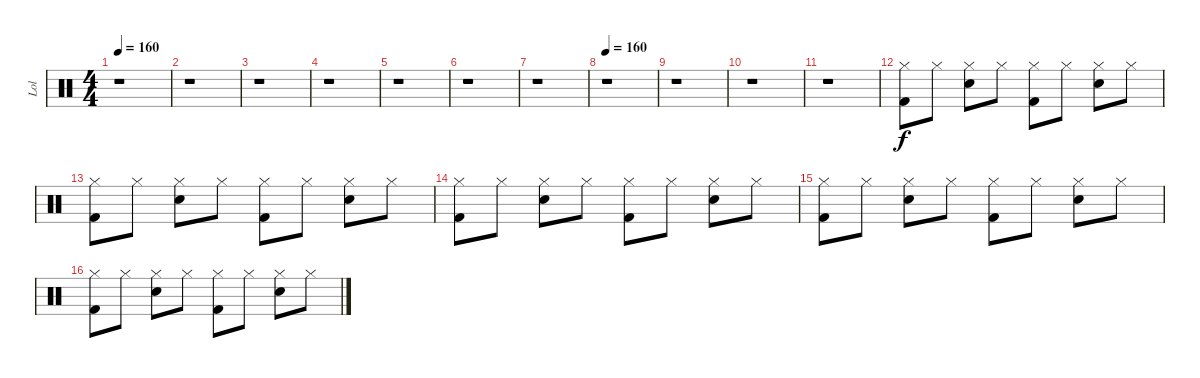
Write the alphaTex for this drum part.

\track ("Lol" "Lol") {instrument percussion}
\staff {score}
\articulation defaults
\ts (4 4)
\tempo 160
\clef neutral
\ks c
r.1{dy f} |
r.1 |
r.1 |
r.1 |
r.1 |
r.1 |
r.1 |
\tempo 160
r.1 |
r.1 |
r.1 |
r.1 |
("Kick (hit) 2" "Hi-Hat (closed)").8 "Hi-Hat (closed)".8 ("Snare (hit) 2" "Hi-Hat (closed)").8 "Hi-Hat (closed)".8 ("Kick (hit) 2" "Hi-Hat (closed)").8 "Hi-Hat (closed)".8 ("Snare (hit) 2" "Hi-Hat (closed)").8 "Hi-Hat (closed)".8 |
("Kick (hit) 2" "Hi-Hat (closed)").8 "Hi-Hat (closed)".8 ("Snare (hit) 2" "Hi-Hat (closed)").8 "Hi-Hat (closed)".8 ("Kick (hit) 2" "Hi-Hat (closed)").8 "Hi-Hat (closed)".8 ("Snare (hit) 2" "Hi-Hat (closed)").8 "Hi-Hat (closed)".8 |
("Kick (hit) 2" "Hi-Hat (closed)").8 "Hi-Hat (closed)".8 ("Snare (hit) 2" "Hi-Hat (closed)").8 "Hi-Hat (closed)".8 ("Kick (hit) 2" "Hi-Hat (closed)").8 "Hi-Hat (closed)".8 ("Snare (hit) 2" "Hi-Hat (closed)").8 "Hi-Hat (closed)".8 |
("Kick (hit) 2" "Hi-Hat (closed)").8 "Hi-Hat (closed)".8 ("Snare (hit) 2" "Hi-Hat (closed)").8 "Hi-Hat (closed)".8 ("Kick (hit) 2" "Hi-Hat (closed)").8 "Hi-Hat (closed)".8 ("Snare (hit) 2" "Hi-Hat (closed)").8 "Hi-Hat (closed)".8 |
("Kick (hit) 2" "Hi-Hat (closed)").8 "Hi-Hat (closed)".8 ("Snare (hit) 2" "Hi-Hat (closed)").8 "Hi-Hat (closed)".8 ("Kick (hit) 2" "Hi-Hat (closed)").8 "Hi-Hat (closed)".8 ("Snare (hit) 2" "Hi-Hat (closed)").8 "Hi-Hat (closed)".8
